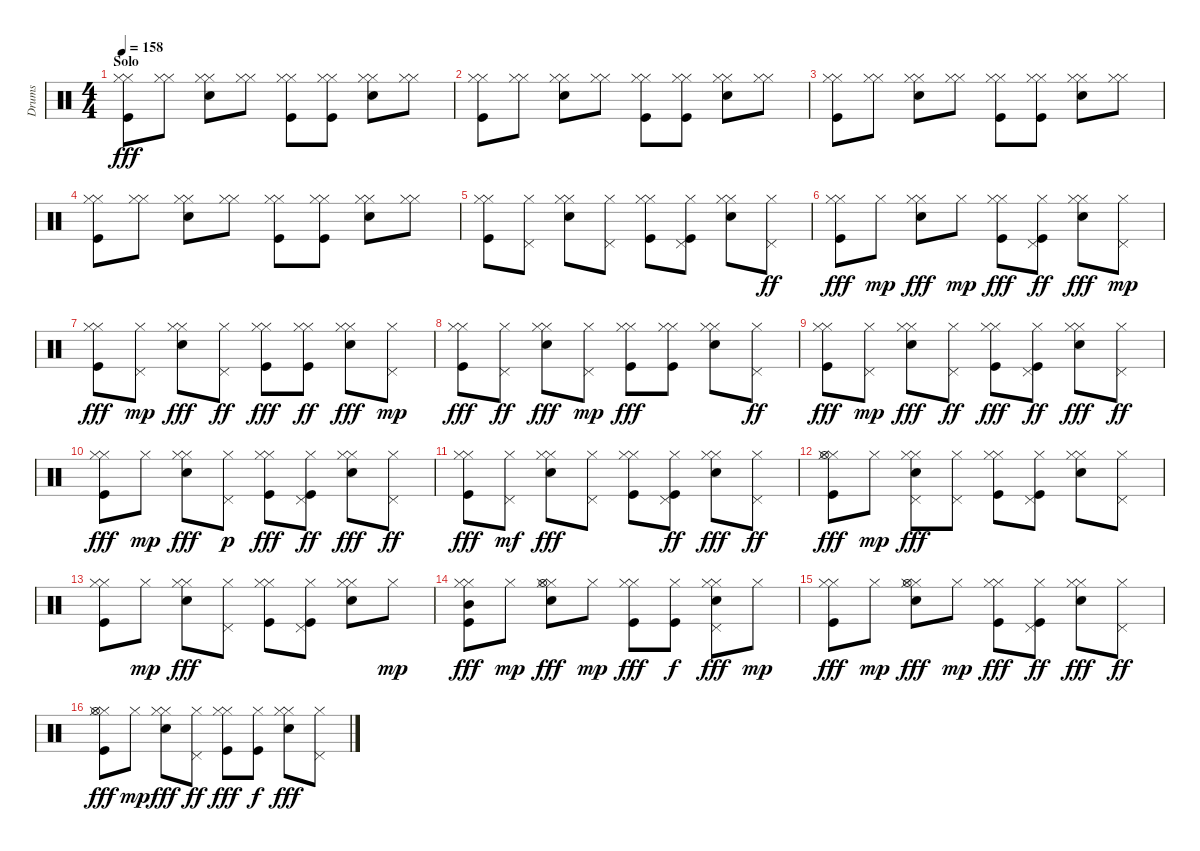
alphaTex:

\track ("Drums" "Drums") {instrument percussion}
\staff {score}
\articulation defaults
\ts (4 4)
\section ("" "Solo")
\tempo 158
\clef neutral
\ks c
("Hi-Hat (closed)" "Kick (hit)" "Hi-Hat (closed)").8{dy fff} ("Hi-Hat (closed)" "Hi-Hat (closed)").8 ("Snare (hit) 2" "Hi-Hat (closed)" "Hi-Hat (closed)").8 ("Hi-Hat (closed)" "Hi-Hat (closed)").8 ("Hi-Hat (closed)" "Kick (hit)" "Hi-Hat (closed)").8 ("Hi-Hat (closed)" "Kick (hit)" "Hi-Hat (closed)").8 ("Snare (hit) 2" "Hi-Hat (closed)" "Hi-Hat (closed)").8 ("Hi-Hat (closed)" "Hi-Hat (closed)").8 |
("Hi-Hat (closed)" "Kick (hit)" "Hi-Hat (closed)").8 ("Hi-Hat (closed)" "Hi-Hat (closed)").8 ("Snare (hit) 2" "Hi-Hat (closed)" "Hi-Hat (closed)").8 ("Hi-Hat (closed)" "Hi-Hat (closed)").8 ("Hi-Hat (closed)" "Kick (hit)" "Hi-Hat (closed)").8 ("Hi-Hat (closed)" "Kick (hit)" "Hi-Hat (closed)").8 ("Snare (hit) 2" "Hi-Hat (closed)" "Hi-Hat (closed)").8 ("Hi-Hat (closed)" "Hi-Hat (closed)").8 |
("Hi-Hat (closed)" "Kick (hit)" "Hi-Hat (closed)").8 ("Hi-Hat (closed)" "Hi-Hat (closed)").8 ("Snare (hit) 2" "Hi-Hat (closed)" "Hi-Hat (closed)").8 ("Hi-Hat (closed)" "Hi-Hat (closed)").8 ("Hi-Hat (closed)" "Kick (hit)" "Hi-Hat (closed)").8 ("Hi-Hat (closed)" "Kick (hit)" "Hi-Hat (closed)").8 ("Snare (hit) 2" "Hi-Hat (closed)" "Hi-Hat (closed)").8 ("Hi-Hat (closed)" "Hi-Hat (closed)").8 |
("Hi-Hat (closed)" "Kick (hit)" "Hi-Hat (closed)").8 ("Hi-Hat (closed)" "Hi-Hat (closed)").8 ("Snare (hit) 2" "Hi-Hat (closed)" "Hi-Hat (closed)").8 ("Hi-Hat (closed)" "Hi-Hat (closed)").8 ("Hi-Hat (closed)" "Kick (hit)" "Hi-Hat (closed)").8 ("Hi-Hat (closed)" "Kick (hit)" "Hi-Hat (closed)").8 ("Snare (hit) 2" "Hi-Hat (closed)" "Hi-Hat (closed)").8 ("Hi-Hat (closed)" "Hi-Hat (closed)").8 |
("Hi-Hat (closed)" "Kick (hit)" "Hi-Hat (closed)").8 ("Hi-Hat (closed)" "Pedal Hi-Hat (hit)").8 ("Snare (hit) 2" "Hi-Hat (closed)" "Hi-Hat (closed)").8 ("Hi-Hat (closed)" "Pedal Hi-Hat (hit)").8 ("Hi-Hat (closed)" "Kick (hit)" "Hi-Hat (closed)").8 ("Hi-Hat (closed)" "Kick (hit)" "Pedal Hi-Hat (hit)").8 ("Snare (hit) 2" "Hi-Hat (closed)" "Hi-Hat (closed)").8 ("Hi-Hat (closed)" "Pedal Hi-Hat (hit)").8{dy ff} |
("Hi-Hat (closed)" "Kick (hit)" "Hi-Hat (closed)").8{dy fff} "Hi-Hat (closed)".8{dy mp} ("Snare (hit) 2" "Hi-Hat (closed)" "Hi-Hat (closed)").8{dy fff} "Hi-Hat (closed)".8{dy mp} ("Hi-Hat (closed)" "Kick (hit)" "Hi-Hat (closed)").8{dy fff} ("Hi-Hat (closed)" "Kick (hit)" "Pedal Hi-Hat (hit)").8{dy ff} ("Snare (hit) 2" "Hi-Hat (closed)" "Hi-Hat (closed)").8{dy fff} ("Hi-Hat (closed)" "Pedal Hi-Hat (hit)").8{dy mp} |
("Hi-Hat (closed)" "Kick (hit)" "Hi-Hat (closed)").8{dy fff} ("Hi-Hat (closed)" "Pedal Hi-Hat (hit)").8{dy mp} ("Snare (hit) 2" "Hi-Hat (closed)" "Hi-Hat (closed)").8{dy fff} ("Hi-Hat (closed)" "Pedal Hi-Hat (hit)").8{dy ff} ("Hi-Hat (closed)" "Kick (hit)" "Hi-Hat (closed)").8{dy fff} ("Hi-Hat (closed)" "Kick (hit)" "Hi-Hat (closed)").8{dy ff} ("Snare (hit) 2" "Hi-Hat (closed)" "Hi-Hat (closed)").8{dy fff} ("Hi-Hat (closed)" "Pedal Hi-Hat (hit)").8{dy mp} |
("Hi-Hat (closed)" "Kick (hit)" "Hi-Hat (closed)").8{dy fff} ("Hi-Hat (closed)" "Pedal Hi-Hat (hit)").8{dy ff} ("Snare (hit) 2" "Hi-Hat (closed)" "Hi-Hat (closed)").8{dy fff} ("Hi-Hat (closed)" "Pedal Hi-Hat (hit)").8{dy mp} ("Hi-Hat (closed)" "Kick (hit)" "Hi-Hat (closed)").8{dy fff} ("Hi-Hat (closed)" "Kick (hit)" "Hi-Hat (closed)").8 ("Snare (hit) 2" "Hi-Hat (closed)" "Hi-Hat (closed)").8 ("Hi-Hat (closed)" "Pedal Hi-Hat (hit)").8{dy ff} |
("Hi-Hat (closed)" "Kick (hit)" "Hi-Hat (closed)").8{dy fff} ("Hi-Hat (closed)" "Pedal Hi-Hat (hit)").8{dy mp} ("Snare (hit) 2" "Hi-Hat (closed)" "Hi-Hat (closed)").8{dy fff} ("Hi-Hat (closed)" "Pedal Hi-Hat (hit)").8{dy ff} ("Hi-Hat (closed)" "Kick (hit)" "Hi-Hat (closed)").8{dy fff} ("Hi-Hat (closed)" "Kick (hit)" "Pedal Hi-Hat (hit)").8{dy ff} ("Snare (hit) 2" "Hi-Hat (closed)" "Hi-Hat (closed)").8{dy fff} ("Hi-Hat (closed)" "Pedal Hi-Hat (hit)").8{dy ff} |
("Hi-Hat (closed)" "Kick (hit)" "Hi-Hat (closed)").8{dy fff} "Hi-Hat (closed)".8{dy mp} ("Snare (hit) 2" "Hi-Hat (closed)" "Hi-Hat (closed)").8{dy fff} ("Hi-Hat (closed)" "Pedal Hi-Hat (hit)").8{dy p} ("Hi-Hat (closed)" "Kick (hit)" "Hi-Hat (closed)").8{dy fff} ("Hi-Hat (closed)" "Kick (hit)" "Pedal Hi-Hat (hit)").8{dy ff} ("Snare (hit) 2" "Hi-Hat (closed)" "Hi-Hat (closed)").8{dy fff} ("Hi-Hat (closed)" "Pedal Hi-Hat (hit)").8{dy ff} |
("Hi-Hat (closed)" "Kick (hit)" "Hi-Hat (closed)").8{dy fff} ("Hi-Hat (closed)" "Pedal Hi-Hat (hit)").8{dy mf} ("Snare (hit) 2" "Hi-Hat (closed)" "Hi-Hat (closed)").8{dy fff} ("Hi-Hat (closed)" "Pedal Hi-Hat (hit)").8 ("Hi-Hat (closed)" "Kick (hit)" "Hi-Hat (closed)").8 ("Hi-Hat (closed)" "Kick (hit)" "Pedal Hi-Hat (hit)").8{dy ff} ("Snare (hit) 2" "Hi-Hat (closed)" "Hi-Hat (closed)").8{dy fff} ("Hi-Hat (closed)" "Pedal Hi-Hat (hit)").8{dy ff} |
("Hi-Hat (closed)" "Kick (hit)" "Hi-Hat (closed)" "Hi-Hat (open)").8{dy fff} "Hi-Hat (closed)".8{dy mp} ("Snare (hit) 2" "Hi-Hat (closed)" "Hi-Hat (closed)" "Pedal Hi-Hat (hit)").8{dy fff} ("Hi-Hat (closed)" "Pedal Hi-Hat (hit)").8 ("Hi-Hat (closed)" "Kick (hit)" "Hi-Hat (closed)").8 ("Hi-Hat (closed)" "Kick (hit)" "Pedal Hi-Hat (hit)").8 ("Snare (hit) 2" "Hi-Hat (closed)" "Hi-Hat (closed)").8 ("Hi-Hat (closed)" "Pedal Hi-Hat (hit)").8 |
("Hi-Hat (closed)" "Kick (hit)" "Hi-Hat (closed)").8 "Hi-Hat (closed)".8{dy mp} ("Snare (hit) 2" "Hi-Hat (closed)" "Hi-Hat (closed)").8{dy fff} ("Hi-Hat (closed)" "Pedal Hi-Hat (hit)").8 ("Hi-Hat (closed)" "Kick (hit)" "Hi-Hat (closed)").8 ("Hi-Hat (closed)" "Kick (hit)" "Pedal Hi-Hat (hit)").8 ("Snare (hit) 2" "Hi-Hat (closed)" "Hi-Hat (closed)").8 "Hi-Hat (closed)".8{dy mp} |
("Hi-Hat (closed)" "Kick (hit)" "Mid Tom (hit)" "Hi-Hat (closed)").8{dy fff} "Hi-Hat (closed)".8{dy mp} ("Snare (hit) 2" "Hi-Hat (closed)" "Hi-Hat (closed)" "Hi-Hat (open)").8{dy fff} "Hi-Hat (closed)".8{dy mp} ("Hi-Hat (closed)" "Kick (hit)" "Hi-Hat (closed)").8{dy fff} ("Hi-Hat (closed)" "Kick (hit)").8{dy f} ("Snare (hit) 2" "Hi-Hat (closed)" "Pedal Hi-Hat (hit)" "Hi-Hat (closed)").8{dy fff} "Hi-Hat (closed)".8{dy mp} |
("Hi-Hat (closed)" "Kick (hit)" "Hi-Hat (closed)").8{dy fff} "Hi-Hat (closed)".8{dy mp} ("Snare (hit) 2" "Hi-Hat (closed)" "Hi-Hat (closed)" "Hi-Hat (open)").8{dy fff} "Hi-Hat (closed)".8{dy mp} ("Hi-Hat (closed)" "Kick (hit)" "Hi-Hat (closed)").8{dy fff} ("Hi-Hat (closed)" "Kick (hit)" "Pedal Hi-Hat (hit)").8{dy ff} ("Snare (hit) 2" "Hi-Hat (closed)" "Hi-Hat (closed)").8{dy fff} ("Hi-Hat (closed)" "Pedal Hi-Hat (hit)").8{dy ff} |
("Hi-Hat (closed)" "Kick (hit)" "Hi-Hat (open)" "Hi-Hat (closed)").8{dy fff} "Hi-Hat (closed)".8{dy mp} ("Snare (hit) 2" "Hi-Hat (closed)" "Hi-Hat (closed)").8{dy fff} ("Hi-Hat (closed)" "Pedal Hi-Hat (hit)").8{dy ff} ("Hi-Hat (closed)" "Kick (hit)" "Hi-Hat (closed)").8{dy fff} ("Hi-Hat (closed)" "Kick (hit)").8{dy f} ("Snare (hit) 2" "Hi-Hat (closed)" "Hi-Hat (closed)").8{dy fff} ("Hi-Hat (closed)" "Pedal Hi-Hat (hit)").8
